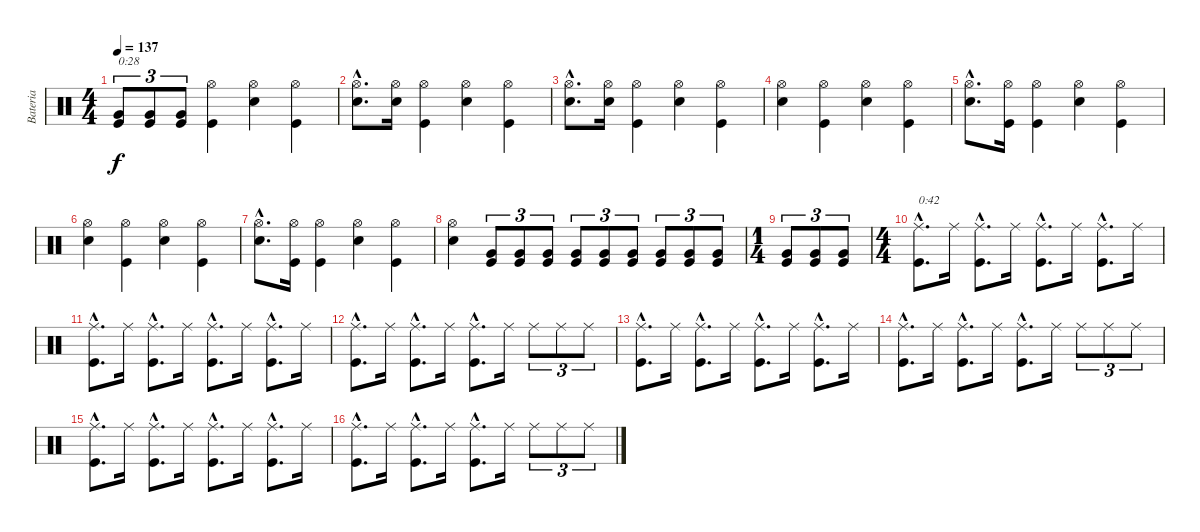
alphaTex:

\track ("Bateria" "Bateria") {instrument percussion}
\staff {score}
\articulation defaults
\ts (4 4)
\tempo 137
\clef neutral
\ks c
("Kick (hit)" "Very Low Tom (hit)").8{tu (3 2) txt "0:28" dy f} ("Kick (hit)" "Very Low Tom (hit)").8{tu (3 2)} ("Kick (hit)" "Very Low Tom (hit)").8{tu (3 2)} ("Kick (hit)" "Hi-Hat (open)").4 ("Snare (hit) 2" "Hi-Hat (open)").4 ("Kick (hit)" "Hi-Hat (open)").4 |
("Snare (hit) 2"{hac} "Hi-Hat (open)"{hac}).8{d} ("Snare (hit) 2" "Hi-Hat (open)").16 ("Kick (hit)" "Hi-Hat (open)").4 ("Snare (hit) 2" "Hi-Hat (open)").4 ("Kick (hit)" "Hi-Hat (open)").4 |
("Snare (hit) 2"{hac} "Hi-Hat (open)"{hac}).8{d} ("Snare (hit) 2" "Hi-Hat (open)").16 ("Kick (hit)" "Hi-Hat (open)").4 ("Snare (hit) 2" "Hi-Hat (open)").4 ("Kick (hit)" "Hi-Hat (open)").4 |
("Snare (hit) 2" "Hi-Hat (open)").4 ("Kick (hit)" "Hi-Hat (open)").4 ("Snare (hit) 2" "Hi-Hat (open)").4 ("Kick (hit)" "Hi-Hat (open)").4 |
("Snare (hit) 2"{hac} "Hi-Hat (open)"{hac}).8{d} ("Kick (hit)" "Hi-Hat (open)").16 ("Kick (hit)" "Hi-Hat (open)").4 ("Snare (hit) 2" "Hi-Hat (open)").4 ("Kick (hit)" "Hi-Hat (open)").4 |
("Snare (hit) 2" "Hi-Hat (open)").4 ("Kick (hit)" "Hi-Hat (open)").4 ("Snare (hit) 2" "Hi-Hat (open)").4 ("Kick (hit)" "Hi-Hat (open)").4 |
("Snare (hit) 2"{hac} "Hi-Hat (open)"{hac}).8{d} ("Kick (hit)" "Hi-Hat (open)").16 ("Kick (hit)" "Hi-Hat (open)").4 ("Snare (hit) 2" "Hi-Hat (open)").4 ("Kick (hit)" "Hi-Hat (open)").4 |
("Snare (hit) 2" "Hi-Hat (open)").4 ("Kick (hit)" "Very Low Tom (hit)").8{tu (3 2)} ("Kick (hit)" "Very Low Tom (hit)").8{tu (3 2)} ("Kick (hit)" "Very Low Tom (hit)").8{tu (3 2)} ("Kick (hit)" "Very Low Tom (hit)").8{tu (3 2)} ("Kick (hit)" "Very Low Tom (hit)").8{tu (3 2)} ("Kick (hit)" "Very Low Tom (hit)").8{tu (3 2)} ("Kick (hit)" "Very Low Tom (hit)").8{tu (3 2)} ("Kick (hit)" "Very Low Tom (hit)").8{tu (3 2)} ("Kick (hit)" "Very Low Tom (hit)").8{tu (3 2)} |
\ts (1 4)
("Kick (hit)" "Very Low Tom (hit)").8{tu (3 2)} ("Kick (hit)" "Very Low Tom (hit)").8{tu (3 2)} ("Kick (hit)" "Very Low Tom (hit)").8{tu (3 2)} |
\ts (4 4)
("Kick (hit)"{hac} "Ride (middle)"{hac}).8{d txt "0:42"} "Ride (middle)".16 ("Kick (hit)"{hac} "Ride (middle)"{hac}).8{d} "Ride (middle)".16 ("Kick (hit)"{hac} "Ride (middle)"{hac}).8{d} "Ride (middle)".16 ("Kick (hit)"{hac} "Ride (middle)"{hac}).8{d} "Ride (middle)".16 |
("Kick (hit)"{hac} "Ride (middle)"{hac}).8{d} "Ride (middle)".16 ("Kick (hit)"{hac} "Ride (middle)"{hac}).8{d} "Ride (middle)".16 ("Kick (hit)"{hac} "Ride (middle)"{hac}).8{d} "Ride (middle)".16 ("Kick (hit)"{hac} "Ride (middle)"{hac}).8{d} "Ride (middle)".16 |
("Kick (hit)"{hac} "Ride (middle)"{hac}).8{d} "Ride (middle)".16 ("Kick (hit)"{hac} "Ride (middle)"{hac}).8{d} "Ride (middle)".16 ("Kick (hit)"{hac} "Ride (middle)"{hac}).8{d} "Ride (middle)".16 "Ride (middle)".8{tu (3 2)} "Ride (middle)".8{tu (3 2)} "Ride (middle)".8{tu (3 2)} |
("Kick (hit)"{hac} "Ride (middle)"{hac}).8{d} "Ride (middle)".16 ("Kick (hit)"{hac} "Ride (middle)"{hac}).8{d} "Ride (middle)".16 ("Kick (hit)"{hac} "Ride (middle)"{hac}).8{d} "Ride (middle)".16 ("Kick (hit)"{hac} "Ride (middle)"{hac}).8{d} "Ride (middle)".16 |
("Kick (hit)"{hac} "Ride (middle)"{hac}).8{d} "Ride (middle)".16 ("Kick (hit)"{hac} "Ride (middle)"{hac}).8{d} "Ride (middle)".16 ("Kick (hit)"{hac} "Ride (middle)"{hac}).8{d} "Ride (middle)".16 "Ride (middle)".8{tu (3 2)} "Ride (middle)".8{tu (3 2)} "Ride (middle)".8{tu (3 2)} |
("Kick (hit)"{hac} "Ride (middle)"{hac}).8{d} "Ride (middle)".16 ("Kick (hit)"{hac} "Ride (middle)"{hac}).8{d} "Ride (middle)".16 ("Kick (hit)"{hac} "Ride (middle)"{hac}).8{d} "Ride (middle)".16 ("Kick (hit)"{hac} "Ride (middle)"{hac}).8{d} "Ride (middle)".16 |
("Kick (hit)"{hac} "Ride (middle)"{hac}).8{d} "Ride (middle)".16 ("Kick (hit)"{hac} "Ride (middle)"{hac}).8{d} "Ride (middle)".16 ("Kick (hit)"{hac} "Ride (middle)"{hac}).8{d} "Ride (middle)".16 "Ride (middle)".8{tu (3 2)} "Ride (middle)".8{tu (3 2)} "Ride (middle)".8{tu (3 2)}
